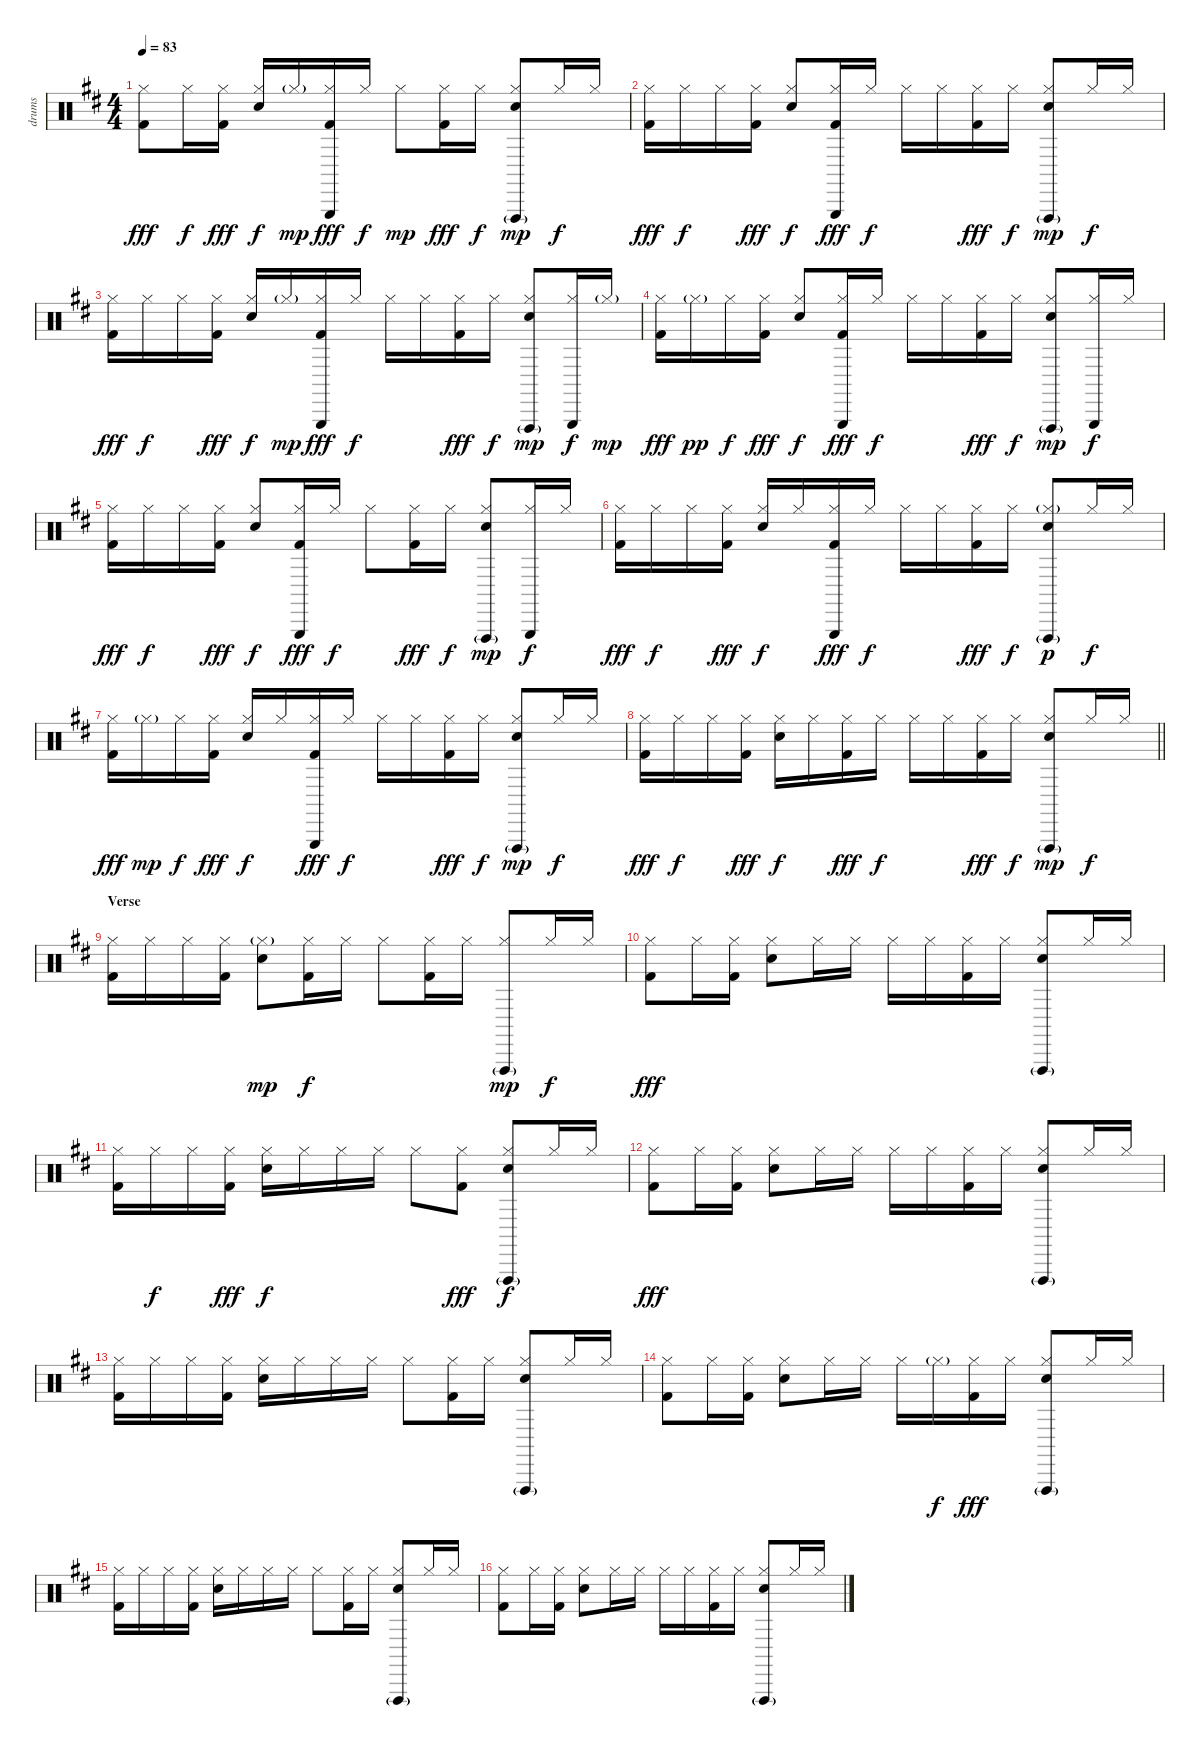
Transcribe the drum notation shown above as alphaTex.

\track ("drums" "drums") {instrument percussion}
\staff {score}
\articulation defaults
\ts (4 4)
\tempo 83
\clef neutral
\ks d
("Hi-Hat (closed)" "Kick (hit) 2").8{dy fff} "Hi-Hat (closed)".16{dy f} ("Hi-Hat (closed)" "Kick (hit) 2").16{dy fff} ("Hi-Hat (closed)" "Electric Snare (hit)").16{dy f} "Hi-Hat (closed)"{g}.16{dy mp} ("Triangle (hit)" "Hi-Hat (closed)" "Kick (hit) 2").16{dy fff} "Hi-Hat (closed)".16{dy f} "Hi-Hat (closed)".8{dy mp} ("Hi-Hat (closed)" "Kick (hit) 2").16{dy fff} "Hi-Hat (closed)".16{dy f} ("Vibraslap (hit)"{g} "Hi-Hat (closed)" "Electric Snare (hit)").8{dy mp} "Hi-Hat (closed)".16{dy f} "Hi-Hat (closed)".16 |
("Hi-Hat (closed)" "Kick (hit) 2").16{dy fff} "Hi-Hat (closed)".16{dy f} "Hi-Hat (closed)".16 ("Hi-Hat (closed)" "Kick (hit) 2").16{dy fff} ("Hi-Hat (closed)" "Electric Snare (hit)").8{dy f} ("Triangle (hit)" "Hi-Hat (closed)" "Kick (hit) 2").16{dy fff} "Hi-Hat (closed)".16{dy f} "Hi-Hat (closed)".16 "Hi-Hat (closed)".16 ("Hi-Hat (closed)" "Kick (hit) 2").16{dy fff} "Hi-Hat (closed)".16{dy f} ("Vibraslap (hit)"{g} "Hi-Hat (closed)" "Electric Snare (hit)").8{dy mp} "Hi-Hat (closed)".16{dy f} "Hi-Hat (closed)".16 |
("Hi-Hat (closed)" "Kick (hit) 2").16{dy fff} "Hi-Hat (closed)".16{dy f} "Hi-Hat (closed)".16 ("Hi-Hat (closed)" "Kick (hit) 2").16{dy fff} ("Hi-Hat (closed)" "Electric Snare (hit)").16{dy f} "Hi-Hat (closed)"{g}.16{dy mp} ("Triangle (hit)" "Hi-Hat (closed)" "Kick (hit) 2").16{dy fff} "Hi-Hat (closed)".16{dy f} "Hi-Hat (closed)".16 "Hi-Hat (closed)".16 ("Hi-Hat (closed)" "Kick (hit) 2").16{dy fff} "Hi-Hat (closed)".16{dy f} ("Vibraslap (hit)"{g} "Hi-Hat (closed)" "Electric Snare (hit)").8{dy mp} ("Triangle (hit)" "Hi-Hat (closed)").16{dy f} "Hi-Hat (closed)"{g}.16{dy mp} |
("Hi-Hat (closed)" "Kick (hit) 2").16{dy fff} "Hi-Hat (closed)"{g}.16{dy pp} "Hi-Hat (closed)".16{dy f} ("Hi-Hat (closed)" "Kick (hit) 2").16{dy fff} ("Hi-Hat (closed)" "Electric Snare (hit)").8{dy f} ("Triangle (hit)" "Hi-Hat (closed)" "Kick (hit) 2").16{dy fff} "Hi-Hat (closed)".16{dy f} "Hi-Hat (closed)".16 "Hi-Hat (closed)".16 ("Hi-Hat (closed)" "Kick (hit) 2").16{dy fff} "Hi-Hat (closed)".16{dy f} ("Vibraslap (hit)"{g} "Hi-Hat (closed)" "Electric Snare (hit)").8{dy mp} ("Triangle (hit)" "Hi-Hat (closed)").16{dy f} "Hi-Hat (closed)".16 |
("Hi-Hat (closed)" "Kick (hit) 2").16{dy fff} "Hi-Hat (closed)".16{dy f} "Hi-Hat (closed)".16 ("Hi-Hat (closed)" "Kick (hit) 2").16{dy fff} ("Hi-Hat (closed)" "Electric Snare (hit)").8{dy f} ("Triangle (hit)" "Hi-Hat (closed)" "Kick (hit) 2").16{dy fff} "Hi-Hat (closed)".16{dy f} "Hi-Hat (closed)".8 ("Hi-Hat (closed)" "Kick (hit) 2").16{dy fff} "Hi-Hat (closed)".16{dy f} ("Vibraslap (hit)"{g} "Hi-Hat (closed)" "Electric Snare (hit)").8{dy mp} ("Triangle (hit)" "Hi-Hat (closed)").16{dy f} "Hi-Hat (closed)".16 |
("Hi-Hat (closed)" "Kick (hit) 2").16{dy fff} "Hi-Hat (closed)".16{dy f} "Hi-Hat (closed)".16 ("Hi-Hat (closed)" "Kick (hit) 2").16{dy fff} ("Hi-Hat (closed)" "Electric Snare (hit)").16{dy f} "Hi-Hat (closed)".16 ("Triangle (hit)" "Hi-Hat (closed)" "Kick (hit) 2").16{dy fff} "Hi-Hat (closed)".16{dy f} "Hi-Hat (closed)".16 "Hi-Hat (closed)".16 ("Hi-Hat (closed)" "Kick (hit) 2").16{dy fff} "Hi-Hat (closed)".16{dy f} ("Vibraslap (hit)"{g} "Hi-Hat (closed)"{g} "Electric Snare (hit)").8{dy p} "Hi-Hat (closed)".16{dy f} "Hi-Hat (closed)".16 |
("Hi-Hat (closed)" "Kick (hit) 2").16{dy fff} "Hi-Hat (closed)"{g}.16{dy mp} "Hi-Hat (closed)".16{dy f} ("Hi-Hat (closed)" "Kick (hit) 2").16{dy fff} ("Hi-Hat (closed)" "Electric Snare (hit)").16{dy f} "Hi-Hat (closed)".16 ("Triangle (hit)" "Hi-Hat (closed)" "Kick (hit) 2").16{dy fff} "Hi-Hat (closed)".16{dy f} "Hi-Hat (closed)".16 "Hi-Hat (closed)".16 ("Hi-Hat (closed)" "Kick (hit) 2").16{dy fff} "Hi-Hat (closed)".16{dy f} ("Vibraslap (hit)"{g} "Hi-Hat (closed)" "Electric Snare (hit)").8{dy mp} "Hi-Hat (closed)".16{dy f} "Hi-Hat (closed)".16 |
\barLineRight lightlight
("Hi-Hat (closed)" "Kick (hit) 2").16{dy fff} "Hi-Hat (closed)".16{dy f} "Hi-Hat (closed)".16 ("Hi-Hat (closed)" "Kick (hit) 2").16{dy fff} ("Hi-Hat (closed)" "Electric Snare (hit)").16{dy f} "Hi-Hat (closed)".16 ("Hi-Hat (closed)" "Kick (hit) 2").16{dy fff} "Hi-Hat (closed)".16{dy f} "Hi-Hat (closed)".16 "Hi-Hat (closed)".16 ("Hi-Hat (closed)" "Kick (hit) 2").16{dy fff} "Hi-Hat (closed)".16{dy f} ("Vibraslap (hit)"{g} "Hi-Hat (closed)" "Electric Snare (hit)").8{dy mp} "Hi-Hat (closed)".16{dy f} "Hi-Hat (closed)".16 |
\section ("" "Verse")
("Hi-Hat (closed)" "Kick (hit) 2").16 "Hi-Hat (closed)".16 "Hi-Hat (closed)".16 ("Hi-Hat (closed)" "Kick (hit) 2").16 ("Hi-Hat (closed)"{g} "Electric Snare (hit)").8{dy mp} ("Hi-Hat (closed)" "Kick (hit) 2").16{dy f} "Hi-Hat (closed)".16 "Hi-Hat (closed)".8 ("Hi-Hat (closed)" "Kick (hit) 2").16 "Hi-Hat (closed)".16 ("Vibraslap (hit)"{g} "Hi-Hat (closed)").8{dy mp} "Hi-Hat (closed)".16{dy f} "Hi-Hat (closed)".16 |
("Hi-Hat (closed)" "Kick (hit) 2").8{dy fff} "Hi-Hat (closed)".16 ("Hi-Hat (closed)" "Kick (hit) 2").16 ("Hi-Hat (closed)" "Electric Snare (hit)").8 "Hi-Hat (closed)".16 "Hi-Hat (closed)".16 "Hi-Hat (closed)".16 "Hi-Hat (closed)".16 ("Hi-Hat (closed)" "Kick (hit) 2").16 "Hi-Hat (closed)".16 ("Vibraslap (hit)"{g} "Hi-Hat (closed)" "Electric Snare (hit)").8 "Hi-Hat (closed)".16 "Hi-Hat (closed)".16 |
("Hi-Hat (closed)" "Kick (hit) 2").16 "Hi-Hat (closed)".16{dy f} "Hi-Hat (closed)".16 ("Hi-Hat (closed)" "Kick (hit) 2").16{dy fff} ("Hi-Hat (closed)" "Electric Snare (hit)").16{dy f} "Hi-Hat (closed)".16 "Hi-Hat (closed)".16 "Hi-Hat (closed)".16 "Hi-Hat (closed)".8 ("Hi-Hat (closed)" "Kick (hit) 2").8{dy fff} ("Vibraslap (hit)"{g} "Hi-Hat (closed)" "Electric Snare (hit)").8{dy f} "Hi-Hat (closed)".16 "Hi-Hat (closed)".16 |
("Hi-Hat (closed)" "Kick (hit) 2").8{dy fff} "Hi-Hat (closed)".16 ("Hi-Hat (closed)" "Kick (hit) 2").16 ("Hi-Hat (closed)" "Electric Snare (hit)").8 "Hi-Hat (closed)".16 "Hi-Hat (closed)".16 "Hi-Hat (closed)".16 "Hi-Hat (closed)".16 ("Hi-Hat (closed)" "Kick (hit) 2").16 "Hi-Hat (closed)".16 ("Vibraslap (hit)"{g} "Hi-Hat (closed)" "Electric Snare (hit)").8 "Hi-Hat (closed)".16 "Hi-Hat (closed)".16 |
("Hi-Hat (closed)" "Kick (hit) 2").16 "Hi-Hat (closed)".16 "Hi-Hat (closed)".16 ("Hi-Hat (closed)" "Kick (hit) 2").16 ("Hi-Hat (closed)" "Electric Snare (hit)").16 "Hi-Hat (closed)".16 "Hi-Hat (closed)".16 "Hi-Hat (closed)".16 "Hi-Hat (closed)".8 ("Hi-Hat (closed)" "Kick (hit) 2").16 "Hi-Hat (closed)".16 ("Vibraslap (hit)"{g} "Hi-Hat (closed)" "Electric Snare (hit)").8 "Hi-Hat (closed)".16 "Hi-Hat (closed)".16 |
("Hi-Hat (closed)" "Kick (hit) 2").8 "Hi-Hat (closed)".16 ("Hi-Hat (closed)" "Kick (hit) 2").16 ("Hi-Hat (closed)" "Electric Snare (hit)").8 "Hi-Hat (closed)".16 "Hi-Hat (closed)".16 "Hi-Hat (closed)".16 "Hi-Hat (closed)"{g}.16{dy f} ("Hi-Hat (closed)" "Kick (hit) 2").16{dy fff} "Hi-Hat (closed)".16 ("Vibraslap (hit)"{g} "Hi-Hat (closed)" "Electric Snare (hit)").8 "Hi-Hat (closed)".16 "Hi-Hat (closed)".16 |
("Hi-Hat (closed)" "Kick (hit) 2").16 "Hi-Hat (closed)".16 "Hi-Hat (closed)".16 ("Hi-Hat (closed)" "Kick (hit) 2").16 ("Hi-Hat (closed)" "Electric Snare (hit)").16 "Hi-Hat (closed)".16 "Hi-Hat (closed)".16 "Hi-Hat (closed)".16 "Hi-Hat (closed)".8 ("Hi-Hat (closed)" "Kick (hit) 2").16 "Hi-Hat (closed)".16 ("Vibraslap (hit)"{g} "Hi-Hat (closed)" "Electric Snare (hit)").8 "Hi-Hat (closed)".16 "Hi-Hat (closed)".16 |
("Hi-Hat (closed)" "Kick (hit) 2").8 "Hi-Hat (closed)".16 ("Hi-Hat (closed)" "Kick (hit) 2").16 ("Hi-Hat (closed)" "Electric Snare (hit)").8 "Hi-Hat (closed)".16 "Hi-Hat (closed)".16 "Hi-Hat (closed)".16 "Hi-Hat (closed)".16 ("Hi-Hat (closed)" "Kick (hit) 2").16 "Hi-Hat (closed)".16 ("Vibraslap (hit)"{g} "Hi-Hat (closed)" "Electric Snare (hit)").8 "Hi-Hat (closed)".16 "Hi-Hat (closed)".16
